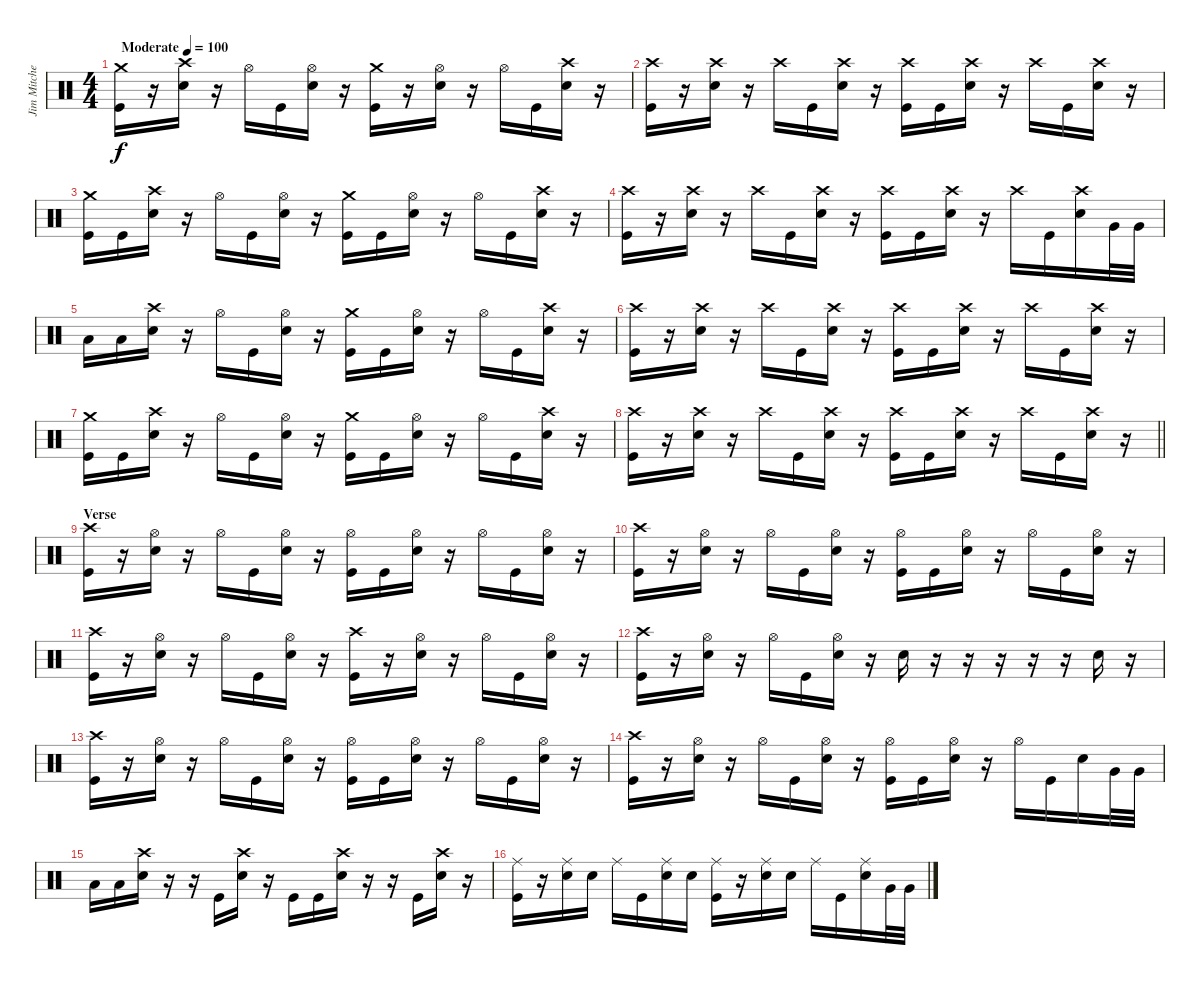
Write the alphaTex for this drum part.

\track ("Jim Mitchell" "Jim Mitche") {instrument percussion}
\staff {score}
\articulation defaults
\ts (4 4)
\tempo (100 "Moderate")
\clef neutral
\ks c
("Crash medium (hit)" "Kick (hit)").16{dy f} r.16 ("Crash high (hit)" "Snare (hit) 2").16 r.16 "Hi-Hat (open)".16 "Kick (hit)".16 ("Hi-Hat (open)" "Snare (hit) 2").16 r.16 ("Crash medium (hit)" "Kick (hit)").16 r.16 ("Hi-Hat (open)" "Snare (hit) 2").16 r.16 "Hi-Hat (open)".16 "Kick (hit)".16 ("Crash high (hit)" "Snare (hit) 2").16 r.16 |
("Crash high (hit)" "Kick (hit)").16 r.16 ("Crash high (hit)" "Snare (hit) 2").16 r.16 "Crash high (hit)".16 "Kick (hit)".16 ("Crash high (hit)" "Snare (hit) 2").16 r.16 ("Crash high (hit)" "Kick (hit)").16 "Kick (hit)".16 ("Crash high (hit)" "Snare (hit) 2").16 r.16 "Crash high (hit)".16 "Kick (hit)".16 ("Crash high (hit)" "Snare (hit) 2").16 r.16 |
("Crash medium (hit)" "Kick (hit)").16 "Kick (hit)".16 ("Crash high (hit)" "Snare (hit) 2").16 r.16 "Hi-Hat (open)".16 "Kick (hit)".16 ("Hi-Hat (open)" "Snare (hit) 2").16 r.16 ("Crash medium (hit)" "Kick (hit)").16 "Kick (hit)".16 ("Hi-Hat (open)" "Snare (hit) 2").16 r.16 "Hi-Hat (open)".16 "Kick (hit)".16 ("Crash high (hit)" "Snare (hit) 2").16 r.16 |
("Crash high (hit)" "Kick (hit)").16 r.16 ("Crash high (hit)" "Snare (hit) 2").16 r.16 "Crash high (hit)".16 "Kick (hit)".16 ("Crash high (hit)" "Snare (hit) 2").16 r.16 ("Crash high (hit)" "Kick (hit)").16 "Kick (hit)".16 ("Crash high (hit)" "Snare (hit) 2").16 r.16 "Crash high (hit)".16 "Kick (hit)".16 ("Crash high (hit)" "Snare (hit) 2").16 "Very Low Tom (hit)".32 "Very Low Tom (hit)".32 |
"Low Floor Tom (hit)".16 "Low Floor Tom (hit)".16 ("Crash high (hit)" "Snare (hit) 2").16 r.16 "Hi-Hat (open)".16 "Kick (hit)".16 ("Hi-Hat (open)" "Snare (hit) 2").16 r.16 ("Crash medium (hit)" "Kick (hit)").16 "Kick (hit)".16 ("Hi-Hat (open)" "Snare (hit) 2").16 r.16 "Hi-Hat (open)".16 "Kick (hit)".16 ("Crash high (hit)" "Snare (hit) 2").16 r.16 |
("Crash high (hit)" "Kick (hit)").16 r.16 ("Crash high (hit)" "Snare (hit) 2").16 r.16 "Crash high (hit)".16 "Kick (hit)".16 ("Crash high (hit)" "Snare (hit) 2").16 r.16 ("Crash high (hit)" "Kick (hit)").16 "Kick (hit)".16 ("Crash high (hit)" "Snare (hit) 2").16 r.16 "Crash high (hit)".16 "Kick (hit)".16 ("Crash high (hit)" "Snare (hit) 2").16 r.16 |
("Crash medium (hit)" "Kick (hit)").16 "Kick (hit)".16 ("Crash high (hit)" "Snare (hit) 2").16 r.16 "Hi-Hat (open)".16 "Kick (hit)".16 ("Hi-Hat (open)" "Snare (hit) 2").16 r.16 ("Crash medium (hit)" "Kick (hit)").16 "Kick (hit)".16 ("Hi-Hat (open)" "Snare (hit) 2").16 r.16 "Hi-Hat (open)".16 "Kick (hit)".16 ("Crash high (hit)" "Snare (hit) 2").16 r.16 |
\barLineRight lightlight
("Crash high (hit)" "Kick (hit)").16 r.16 ("Crash high (hit)" "Snare (hit) 2").16 r.16 "Crash high (hit)".16 "Kick (hit)".16 ("Crash high (hit)" "Snare (hit) 2").16 r.16 ("Crash high (hit)" "Kick (hit)").16 "Kick (hit)".16 ("Crash high (hit)" "Snare (hit) 2").16 r.16 "Crash high (hit)".16 "Kick (hit)".16 ("Crash high (hit)" "Snare (hit) 2").16 r.16 |
\section ("" "Verse")
("Crash high (hit)" "Kick (hit)").16 r.16 ("Hi-Hat (open)" "Snare (hit) 2").16 r.16 "Hi-Hat (open)".16 "Kick (hit)".16 ("Hi-Hat (open)" "Snare (hit) 2").16 r.16 ("Hi-Hat (open)" "Kick (hit)").16 "Kick (hit)".16 ("Hi-Hat (open)" "Snare (hit) 2").16 r.16 "Hi-Hat (open)".16 "Kick (hit)".16 ("Hi-Hat (open)" "Snare (hit) 2").16 r.16 |
("Crash high (hit)" "Kick (hit)").16 r.16 ("Hi-Hat (open)" "Snare (hit) 2").16 r.16 "Hi-Hat (open)".16 "Kick (hit)".16 ("Hi-Hat (open)" "Snare (hit) 2").16 r.16 ("Hi-Hat (open)" "Kick (hit)").16 "Kick (hit)".16 ("Hi-Hat (open)" "Snare (hit) 2").16 r.16 "Hi-Hat (open)".16 "Kick (hit)".16 ("Hi-Hat (open)" "Snare (hit) 2").16 r.16 |
("Crash high (hit)" "Kick (hit)").16 r.16 ("Hi-Hat (open)" "Snare (hit) 2").16 r.16 "Hi-Hat (open)".16 "Kick (hit)".16 ("Hi-Hat (open)" "Snare (hit) 2").16 r.16 ("Crash high (hit)" "Kick (hit)").16 r.16 ("Hi-Hat (open)" "Snare (hit) 2").16 r.16 "Hi-Hat (open)".16 "Kick (hit)".16 ("Hi-Hat (open)" "Snare (hit) 2").16 r.16 |
("Crash high (hit)" "Kick (hit)").16 r.16 ("Hi-Hat (open)" "Snare (hit) 2").16 r.16 "Hi-Hat (open)".16 "Kick (hit)".16 ("Hi-Hat (open)" "Snare (hit) 2").16 r.16 "Snare (hit) 2".16 r.16 r.16 r.16 r.16 r.16 "Snare (hit) 2".16 r.16 |
("Crash high (hit)" "Kick (hit)").16 r.16 ("Hi-Hat (open)" "Snare (hit) 2").16 r.16 "Hi-Hat (open)".16 "Kick (hit)".16 ("Hi-Hat (open)" "Snare (hit) 2").16 r.16 ("Hi-Hat (open)" "Kick (hit)").16 "Kick (hit)".16 ("Hi-Hat (open)" "Snare (hit) 2").16 r.16 "Hi-Hat (open)".16 "Kick (hit)".16 ("Hi-Hat (open)" "Snare (hit) 2").16 r.16 |
("Crash high (hit)" "Kick (hit)").16 r.16 ("Hi-Hat (open)" "Snare (hit) 2").16 r.16 "Hi-Hat (open)".16 "Kick (hit)".16 ("Hi-Hat (open)" "Snare (hit) 2").16 r.16 ("Hi-Hat (open)" "Kick (hit)").16 "Kick (hit)".16 ("Hi-Hat (open)" "Snare (hit) 2").16 r.16 "Hi-Hat (open)".16 "Kick (hit)".16 "Snare (hit) 2".16 "Very Low Tom (hit)".32 "Very Low Tom (hit)".32 |
"Low Floor Tom (hit)".16 "Low Floor Tom (hit)".16 ("Crash high (hit)" "Snare (hit) 2").16 r.16 r.16 "Kick (hit)".16 ("Crash high (hit)" "Snare (hit) 2").16 r.16 "Kick (hit)".16 "Kick (hit)".16 ("Crash high (hit)" "Snare (hit) 2").16 r.16 r.16 "Kick (hit)".16 ("Crash high (hit)" "Snare (hit) 2").16 r.16 |
("Ride (middle)" "Kick (hit)").16 r.16 ("Ride (middle)" "Snare (hit) 2").16 "Snare (hit) 2".16 "Ride (middle)".16 "Kick (hit)".16 ("Ride (middle)" "Snare (hit) 2").16 "Snare (hit) 2".16 ("Ride (middle)" "Kick (hit)").16 r.16 ("Ride (middle)" "Snare (hit) 2").16 "Snare (hit) 2".16 "Ride (middle)".16 "Kick (hit)".16 ("Ride (middle)" "Snare (hit) 2").16 "Very Low Tom (hit)".32 "Very Low Tom (hit)".32
